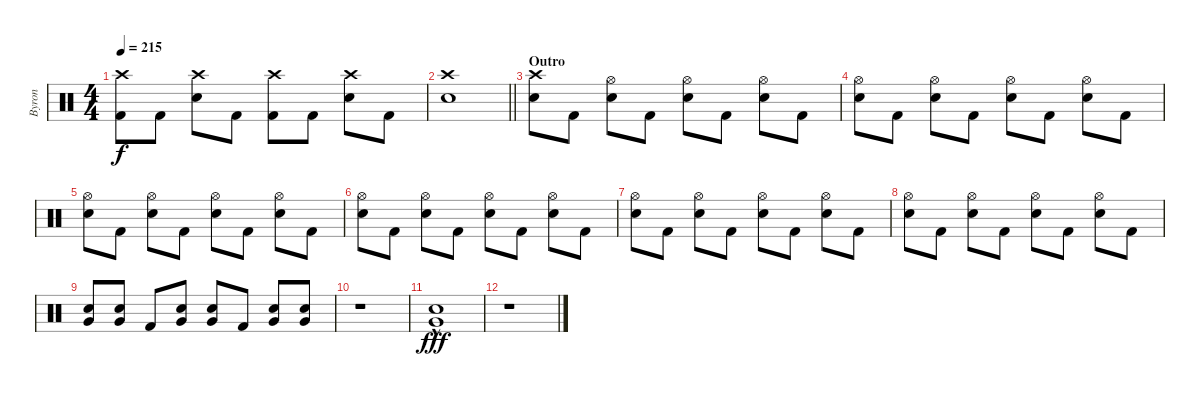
\track ("Byron" "Byron") {instrument percussion}
\staff {score}
\articulation defaults
\ts (4 4)
\tempo 215
\clef neutral
\ks c
("Crash high (hit)" "Kick (hit) 2").8{dy f} "Kick (hit) 2".8 ("Crash high (hit)" "Electric Snare (hit)").8 "Kick (hit) 2".8 ("Crash high (hit)" "Kick (hit) 2").8 "Kick (hit) 2".8 ("Crash high (hit)" "Electric Snare (hit)").8 "Kick (hit) 2".8 |
\barLineRight lightlight
("Crash high (hit)" "Electric Snare (hit)").1 |
\section ("" "Outro")
("Crash high (hit)" "Electric Snare (hit)").8 "Kick (hit) 2".8 ("Hi-Hat (open)" "Electric Snare (hit)").8 "Kick (hit) 2".8 ("Hi-Hat (open)" "Electric Snare (hit)").8 "Kick (hit) 2".8 ("Hi-Hat (open)" "Electric Snare (hit)").8 "Kick (hit) 2".8 |
("Hi-Hat (open)" "Electric Snare (hit)").8 "Kick (hit) 2".8 ("Hi-Hat (open)" "Electric Snare (hit)").8 "Kick (hit) 2".8 ("Hi-Hat (open)" "Electric Snare (hit)").8 "Kick (hit) 2".8 ("Hi-Hat (open)" "Electric Snare (hit)").8 "Kick (hit) 2".8 |
("Hi-Hat (open)" "Electric Snare (hit)").8 "Kick (hit) 2".8 ("Hi-Hat (open)" "Electric Snare (hit)").8 "Kick (hit) 2".8 ("Hi-Hat (open)" "Electric Snare (hit)").8 "Kick (hit) 2".8 ("Hi-Hat (open)" "Electric Snare (hit)").8 "Kick (hit) 2".8 |
("Hi-Hat (open)" "Electric Snare (hit)").8 "Kick (hit) 2".8 ("Hi-Hat (open)" "Electric Snare (hit)").8 "Kick (hit) 2".8 ("Hi-Hat (open)" "Electric Snare (hit)").8 "Kick (hit) 2".8 ("Hi-Hat (open)" "Electric Snare (hit)").8 "Kick (hit) 2".8 |
("Hi-Hat (open)" "Electric Snare (hit)").8 "Kick (hit) 2".8 ("Hi-Hat (open)" "Electric Snare (hit)").8 "Kick (hit) 2".8 ("Hi-Hat (open)" "Electric Snare (hit)").8 "Kick (hit) 2".8 ("Hi-Hat (open)" "Electric Snare (hit)").8 "Kick (hit) 2".8 |
("Hi-Hat (open)" "Electric Snare (hit)").8 "Kick (hit) 2".8 ("Hi-Hat (open)" "Electric Snare (hit)").8 "Kick (hit) 2".8 ("Hi-Hat (open)" "Electric Snare (hit)").8 "Kick (hit) 2".8 ("Hi-Hat (open)" "Electric Snare (hit)").8 "Kick (hit) 2".8 |
("Very Low Tom (hit)" "Electric Snare (hit)").8 ("Very Low Tom (hit)" "Electric Snare (hit)").8 "Kick (hit) 2".8 ("Very Low Tom (hit)" "Electric Snare (hit)").8 ("Very Low Tom (hit)" "Electric Snare (hit)").8 "Kick (hit) 2".8 ("Very Low Tom (hit)" "Electric Snare (hit)").8 ("Very Low Tom (hit)" "Electric Snare (hit)").8 |
r.1 |
("Very Low Tom (hit)"{hac} "Electric Snare (hit)"{hac}).1{dy fff} |
r.1
